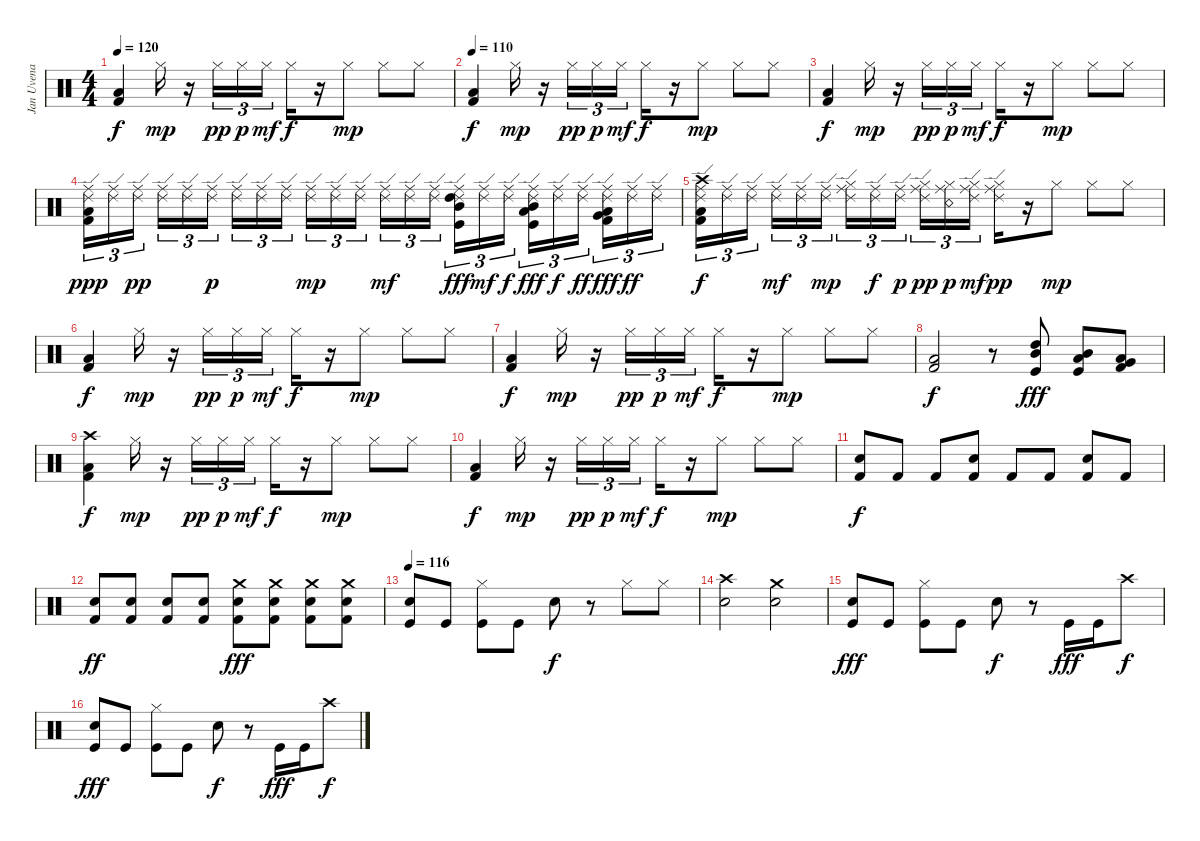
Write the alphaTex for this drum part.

\track ("Jan Uvena" "Jan Uvena") {instrument percussion}
\staff {score}
\articulation defaults
\ts (4 4)
\tempo 120
\tempo 110
\tempo 120
\clef neutral
\ks c
("Kick (hit) 2" "Low Floor Tom (hit)").4{dy f} "Hi-Hat (closed)".16{dy mp} r.16 "Hi-Hat (closed)".16{tu (3 2) dy pp} "Hi-Hat (closed)".16{tu (3 2) dy p} "Hi-Hat (closed)".16{tu (3 2) dy mf} "Hi-Hat (closed)".16{dy f} r.16 "Hi-Hat (closed)".8{dy mp} "Hi-Hat (closed)".8 "Hi-Hat (closed)".8 |
\tempo 110
("Kick (hit) 2" "Low Floor Tom (hit)").4{dy f} "Hi-Hat (closed)".16{dy mp} r.16 "Hi-Hat (closed)".16{tu (3 2) dy pp} "Hi-Hat (closed)".16{tu (3 2) dy p} "Hi-Hat (closed)".16{tu (3 2) dy mf} "Hi-Hat (closed)".16{dy f} r.16 "Hi-Hat (closed)".8{dy mp} "Hi-Hat (closed)".8 "Hi-Hat (closed)".8 |
("Kick (hit) 2" "Low Floor Tom (hit)").4{dy f} "Hi-Hat (closed)".16{dy mp} r.16 "Hi-Hat (closed)".16{tu (3 2) dy pp} "Hi-Hat (closed)".16{tu (3 2) dy p} "Hi-Hat (closed)".16{tu (3 2) dy mf} "Hi-Hat (closed)".16{dy f} r.16 "Hi-Hat (closed)".8{dy mp} "Hi-Hat (closed)".8 "Hi-Hat (closed)".8 |
("Ride (middle)" "Ride (edge) 2" "Kick (hit) 2" "Low Floor Tom (hit)").16{tu (3 2) dy ppp} ("Ride (middle)" "Ride (edge) 2").16{tu (3 2)} ("Ride (middle)" "Ride (edge) 2").16{tu (3 2) dy pp} ("Ride (middle)" "Ride (edge) 2").16{tu (3 2)} ("Ride (middle)" "Ride (edge) 2").16{tu (3 2)} ("Ride (middle)" "Ride (edge) 2").16{tu (3 2) dy p} ("Ride (middle)" "Ride (edge) 2").16{tu (3 2)} ("Ride (middle)" "Ride (edge) 2").16{tu (3 2)} ("Ride (middle)" "Ride (edge) 2").16{tu (3 2)} ("Ride (middle)" "Ride (edge) 2").16{tu (3 2) dy mp} ("Ride (middle)" "Ride (edge) 2").16{tu (3 2)} ("Ride (middle)" "Ride (edge) 2").16{tu (3 2)} ("Ride (middle)" "Ride (edge) 2").16{tu (3 2) dy mf} ("Ride (middle)" "Ride (edge) 2").16{tu (3 2)} ("Ride (middle)" "Ride (edge) 2").16{tu (3 2)} ("Ride (middle)" "Ride (edge) 2" "High Tom (hit)" "Mid Tom (hit)" "Kick (hit)").16{tu (3 2) dy fff} ("Ride (middle)" "Ride (edge) 2").16{tu (3 2) dy mf} ("Ride (middle)" "Ride (edge) 2").16{tu (3 2) dy f} ("Ride (middle)" "Ride (edge) 2" "Mid Tom (hit)" "Low Tom (hit)" "Kick (hit)").16{tu (3 2) dy fff} ("Ride (middle)" "Ride (edge) 2").16{tu (3 2) dy f} ("Ride (middle)" "Ride (edge) 2").16{tu (3 2) dy ff} ("Ride (middle)" "Ride (edge) 2" "Low Tom (hit)" "Very Low Tom (hit)" "Kick (hit) 2").16{tu (3 2) dy fff} ("Ride (middle)" "Ride (edge) 2").16{tu (3 2) dy ff} ("Ride (middle)" "Ride (edge) 2").16{tu (3 2)} |
("Crash high (hit)" "Ride (middle)" "Ride (edge) 2" "Kick (hit) 2" "Low Floor Tom (hit)").16{tu (3 2) dy f} ("Ride (middle)" "Ride (edge) 2").16{tu (3 2)} ("Ride (middle)" "Ride (edge) 2").16{tu (3 2)} ("Ride (middle)" "Ride (edge) 2").16{tu (3 2) dy mf} ("Ride (middle)" "Ride (edge) 2").16{tu (3 2)} ("Ride (middle)" "Ride (edge) 2").16{tu (3 2) dy mp} ("Ride (middle)" "Ride (edge) 2" "Hi-Hat (closed)").16{tu (3 2)} ("Ride (middle)" "Ride (edge) 2").16{tu (3 2) dy f} ("Ride (middle)" "Ride (edge) 2").16{tu (3 2) dy p} ("Ride (middle)" "Ride (edge) 2" "Hi-Hat (closed)").16{tu (3 2) dy pp} ("Ride (middle)" "Snare (rim shot)" "Hi-Hat (closed)").16{tu (3 2) dy p} ("Ride (middle)" "Ride (edge) 2" "Hi-Hat (closed)").16{tu (3 2) dy mf} ("Ride (middle)" "Ride (edge) 2" "Hi-Hat (closed)").16{dy pp} r.16 "Hi-Hat (closed)".8{dy mp} "Hi-Hat (closed)".8 "Hi-Hat (closed)".8 |
("Kick (hit) 2" "Low Floor Tom (hit)").4{dy f} "Hi-Hat (closed)".16{dy mp} r.16 "Hi-Hat (closed)".16{tu (3 2) dy pp} "Hi-Hat (closed)".16{tu (3 2) dy p} "Hi-Hat (closed)".16{tu (3 2) dy mf} "Hi-Hat (closed)".16{dy f} r.16 "Hi-Hat (closed)".8{dy mp} "Hi-Hat (closed)".8 "Hi-Hat (closed)".8 |
("Kick (hit) 2" "Low Floor Tom (hit)").4{dy f} "Hi-Hat (closed)".16{dy mp} r.16 "Hi-Hat (closed)".16{tu (3 2) dy pp} "Hi-Hat (closed)".16{tu (3 2) dy p} "Hi-Hat (closed)".16{tu (3 2) dy mf} "Hi-Hat (closed)".16{dy f} r.16 "Hi-Hat (closed)".8{dy mp} "Hi-Hat (closed)".8 "Hi-Hat (closed)".8 |
("Kick (hit) 2" "Low Floor Tom (hit)").2{dy f} r.8 ("High Tom (hit)" "Mid Tom (hit)" "Kick (hit)").8{dy fff} ("Mid Tom (hit)" "Low Tom (hit)" "Kick (hit)").8 ("Low Tom (hit)" "Very Low Tom (hit)" "Kick (hit) 2").8 |
("Crash high (hit)" "Kick (hit) 2" "Low Floor Tom (hit)").4{dy f} "Hi-Hat (closed)".16{dy mp} r.16 "Hi-Hat (closed)".16{tu (3 2) dy pp} "Hi-Hat (closed)".16{tu (3 2) dy p} "Hi-Hat (closed)".16{tu (3 2) dy mf} "Hi-Hat (closed)".16{dy f} r.16 "Hi-Hat (closed)".8{dy mp} "Hi-Hat (closed)".8 "Hi-Hat (closed)".8 |
("Kick (hit) 2" "Low Floor Tom (hit)").4{dy f} "Hi-Hat (closed)".16{dy mp} r.16 "Hi-Hat (closed)".16{tu (3 2) dy pp} "Hi-Hat (closed)".16{tu (3 2) dy p} "Hi-Hat (closed)".16{tu (3 2) dy mf} "Hi-Hat (closed)".16{dy f} r.16 "Hi-Hat (closed)".8{dy mp} "Hi-Hat (closed)".8 "Hi-Hat (closed)".8 |
("Snare (hit) 2" "Kick (hit) 2").8{dy f volume 14} "Kick (hit) 2".8 "Kick (hit) 2".8 ("Snare (hit) 2" "Kick (hit) 2").8 "Kick (hit) 2".8 "Kick (hit) 2".8 ("Snare (hit) 2" "Kick (hit) 2").8 "Kick (hit) 2".8 |
("Snare (hit) 2" "Kick (hit) 2").8{dy ff} ("Snare (hit) 2" "Kick (hit) 2").8 ("Snare (hit) 2" "Kick (hit) 2").8 ("Snare (hit) 2" "Kick (hit) 2").8 ("Crash medium (hit)" "Snare (hit) 2" "Kick (hit) 2").8{dy fff} ("Crash medium (hit)" "Snare (hit) 2" "Kick (hit) 2").8 ("Crash medium (hit)" "Snare (hit) 2" "Kick (hit) 2").8 ("Crash medium (hit)" "Snare (hit) 2" "Kick (hit) 2").8 |
\tempo 116
("Snare (hit) 2" "Kick (hit)").8 "Kick (hit)".8 ("Hi-Hat (closed)" "Kick (hit)").8 "Kick (hit)".8 "Snare (hit) 2".8{dy f} r.8 "Hi-Hat (closed)".8 "Hi-Hat (closed)".8 |
("Snare (hit) 2" "Crash high (hit)").2 ("Snare (hit) 2" "Crash medium (hit)").2 |
("Snare (hit) 2" "Kick (hit)").8{dy fff} "Kick (hit)".8 ("Hi-Hat (closed)" "Kick (hit)").8 "Kick (hit)".8 "Snare (hit) 2".8{dy f} r.8 "Kick (hit)".16{dy fff} "Kick (hit)".16 "Crash high (hit)".8{dy f} |
("Snare (hit) 2" "Kick (hit)").8{dy fff} "Kick (hit)".8 ("Hi-Hat (closed)" "Kick (hit)").8 "Kick (hit)".8 "Snare (hit) 2".8{dy f} r.8 "Kick (hit)".16{dy fff} "Kick (hit)".16 "Crash high (hit)".8{dy f}
